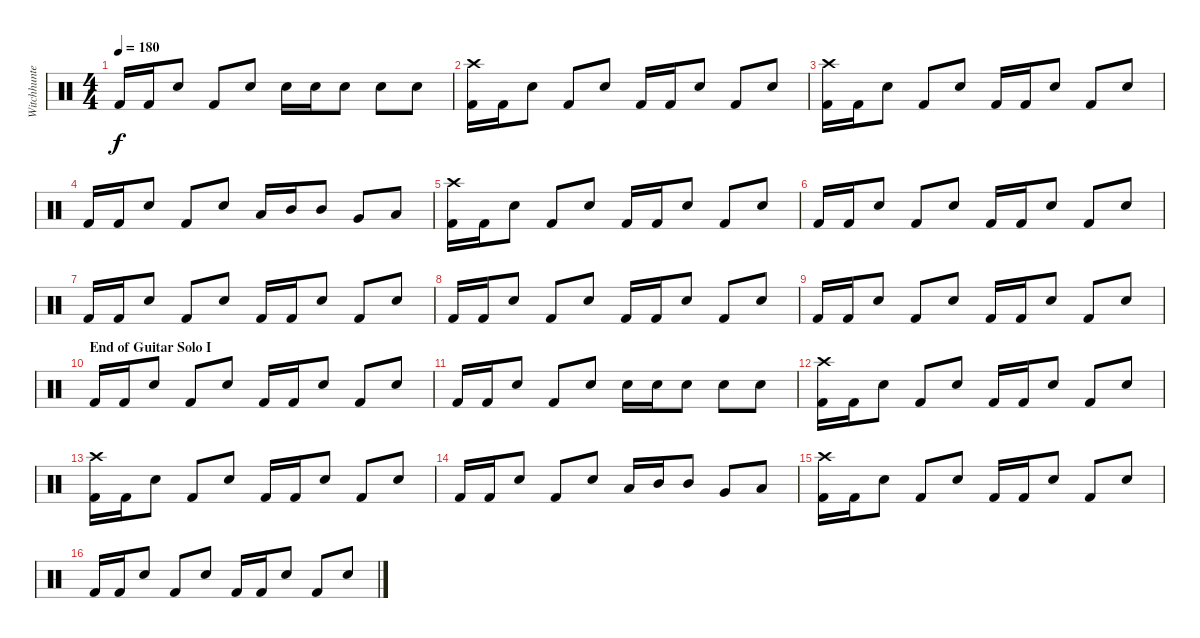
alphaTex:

\track ("Witchhunter (Drums)" "Witchhunte") {instrument percussion}
\staff {score}
\articulation defaults
\ts (4 4)
\tempo 180
\clef neutral
\ks c "Kick (hit) 2".16{dy f} "Kick (hit) 2".16 "Snare (hit) 2".8 "Kick (hit) 2".8 "Snare (hit) 2".8 "Snare (hit) 2".16 "Snare (hit) 2".16 "Snare (hit) 2".8 "Snare (hit) 2".8 "Snare (hit) 2".8
|
("Crash high (hit)" "Kick (hit) 2").16 "Kick (hit) 2".16 "Snare (hit) 2".8 "Kick (hit) 2".8 "Snare (hit) 2".8 "Kick (hit) 2".16 "Kick (hit) 2".16 "Snare (hit) 2".8 "Kick (hit) 2".8 "Snare (hit) 2".8 |
("Crash high (hit)" "Kick (hit) 2").16 "Kick (hit) 2".16 "Snare (hit) 2".8 "Kick (hit) 2".8 "Snare (hit) 2".8 "Kick (hit) 2".16 "Kick (hit) 2".16 "Snare (hit) 2".8 "Kick (hit) 2".8 "Snare (hit) 2".8 |
"Kick (hit) 2".16 "Kick (hit) 2".16 "Snare (hit) 2".8 "Kick (hit) 2".8 "Snare (hit) 2".8 "Low Tom (hit)".16 "Mid Tom (hit)".16 "Mid Tom (hit)".8 "Very Low Tom (hit)".8 "Low Tom (hit)".8 |
("Crash high (hit)" "Kick (hit) 2").16 "Kick (hit) 2".16 "Snare (hit) 2".8 "Kick (hit) 2".8 "Snare (hit) 2".8 "Kick (hit) 2".16 "Kick (hit) 2".16 "Snare (hit) 2".8 "Kick (hit) 2".8 "Snare (hit) 2".8 |
"Kick (hit) 2".16 "Kick (hit) 2".16 "Snare (hit) 2".8 "Kick (hit) 2".8 "Snare (hit) 2".8 "Kick (hit) 2".16 "Kick (hit) 2".16 "Snare (hit) 2".8 "Kick (hit) 2".8 "Snare (hit) 2".8 |
"Kick (hit) 2".16 "Kick (hit) 2".16 "Snare (hit) 2".8 "Kick (hit) 2".8 "Snare (hit) 2".8 "Kick (hit) 2".16 "Kick (hit) 2".16 "Snare (hit) 2".8 "Kick (hit) 2".8 "Snare (hit) 2".8 |
"Kick (hit) 2".16 "Kick (hit) 2".16 "Snare (hit) 2".8 "Kick (hit) 2".8 "Snare (hit) 2".8 "Kick (hit) 2".16 "Kick (hit) 2".16 "Snare (hit) 2".8 "Kick (hit) 2".8 "Snare (hit) 2".8 |
"Kick (hit) 2".16 "Kick (hit) 2".16 "Snare (hit) 2".8 "Kick (hit) 2".8 "Snare (hit) 2".8 "Kick (hit) 2".16 "Kick (hit) 2".16 "Snare (hit) 2".8 "Kick (hit) 2".8 "Snare (hit) 2".8 |
\section ("" "End of Guitar Solo I")
"Kick (hit) 2".16 "Kick (hit) 2".16 "Snare (hit) 2".8 "Kick (hit) 2".8 "Snare (hit) 2".8 "Kick (hit) 2".16 "Kick (hit) 2".16 "Snare (hit) 2".8 "Kick (hit) 2".8 "Snare (hit) 2".8 |
"Kick (hit) 2".16 "Kick (hit) 2".16 "Snare (hit) 2".8 "Kick (hit) 2".8 "Snare (hit) 2".8 "Snare (hit) 2".16 "Snare (hit) 2".16 "Snare (hit) 2".8 "Snare (hit) 2".8 "Snare (hit) 2".8 |
("Crash high (hit)" "Kick (hit) 2").16 "Kick (hit) 2".16 "Snare (hit) 2".8 "Kick (hit) 2".8 "Snare (hit) 2".8 "Kick (hit) 2".16 "Kick (hit) 2".16 "Snare (hit) 2".8 "Kick (hit) 2".8 "Snare (hit) 2".8 |
("Crash high (hit)" "Kick (hit) 2").16 "Kick (hit) 2".16 "Snare (hit) 2".8 "Kick (hit) 2".8 "Snare (hit) 2".8 "Kick (hit) 2".16 "Kick (hit) 2".16 "Snare (hit) 2".8 "Kick (hit) 2".8 "Snare (hit) 2".8 |
"Kick (hit) 2".16 "Kick (hit) 2".16 "Snare (hit) 2".8 "Kick (hit) 2".8 "Snare (hit) 2".8 "Low Tom (hit)".16 "Mid Tom (hit)".16 "Mid Tom (hit)".8 "Very Low Tom (hit)".8 "Low Tom (hit)".8 |
("Crash high (hit)" "Kick (hit) 2").16 "Kick (hit) 2".16 "Snare (hit) 2".8 "Kick (hit) 2".8 "Snare (hit) 2".8 "Kick (hit) 2".16 "Kick (hit) 2".16 "Snare (hit) 2".8 "Kick (hit) 2".8 "Snare (hit) 2".8 |
"Kick (hit) 2".16 "Kick (hit) 2".16 "Snare (hit) 2".8 "Kick (hit) 2".8 "Snare (hit) 2".8 "Kick (hit) 2".16 "Kick (hit) 2".16 "Snare (hit) 2".8 "Kick (hit) 2".8 "Snare (hit) 2".8
